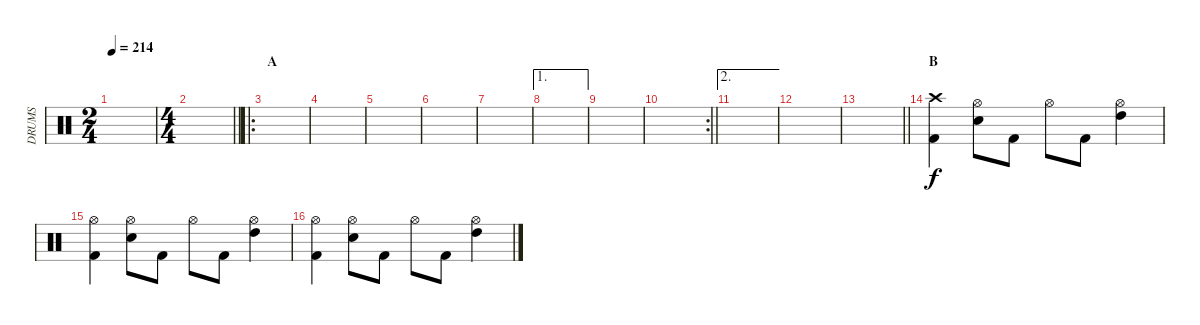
\track ("DRUMS" "DRUMS") {instrument percussion}
\staff {score}
\articulation defaults
\ts (2 4)
\tempo 214
\clef neutral
\ks c
|
\ts (4 4)
\barLineRight lightlight
|
\ro
\section ("" "A")
|
|
|
|
|
\ae 1
|
|
\rc 2
\barLineRight lightlight
|
\ae 2
|
|
\barLineRight lightlight
|
\section ("" "B")
("Crash high (hit)" "Kick (hit) 2").4 ("Hi-Hat (open)" "Snare (hit) 2").8 "Kick (hit) 2".8 "Hi-Hat (open)".8 "Kick (hit) 2".8 ("Hi-Hat (open)" "High Tom (hit)").4 |
("Hi-Hat (open)" "Kick (hit) 2").4 ("Hi-Hat (open)" "Snare (hit) 2").8 "Kick (hit) 2".8 "Hi-Hat (open)".8 "Kick (hit) 2".8 ("Hi-Hat (open)" "High Tom (hit)").4 |
("Hi-Hat (open)" "Kick (hit) 2").4 ("Hi-Hat (open)" "Snare (hit) 2").8 "Kick (hit) 2".8 "Hi-Hat (open)".8 "Kick (hit) 2".8 ("Hi-Hat (open)" "High Tom (hit)").4
